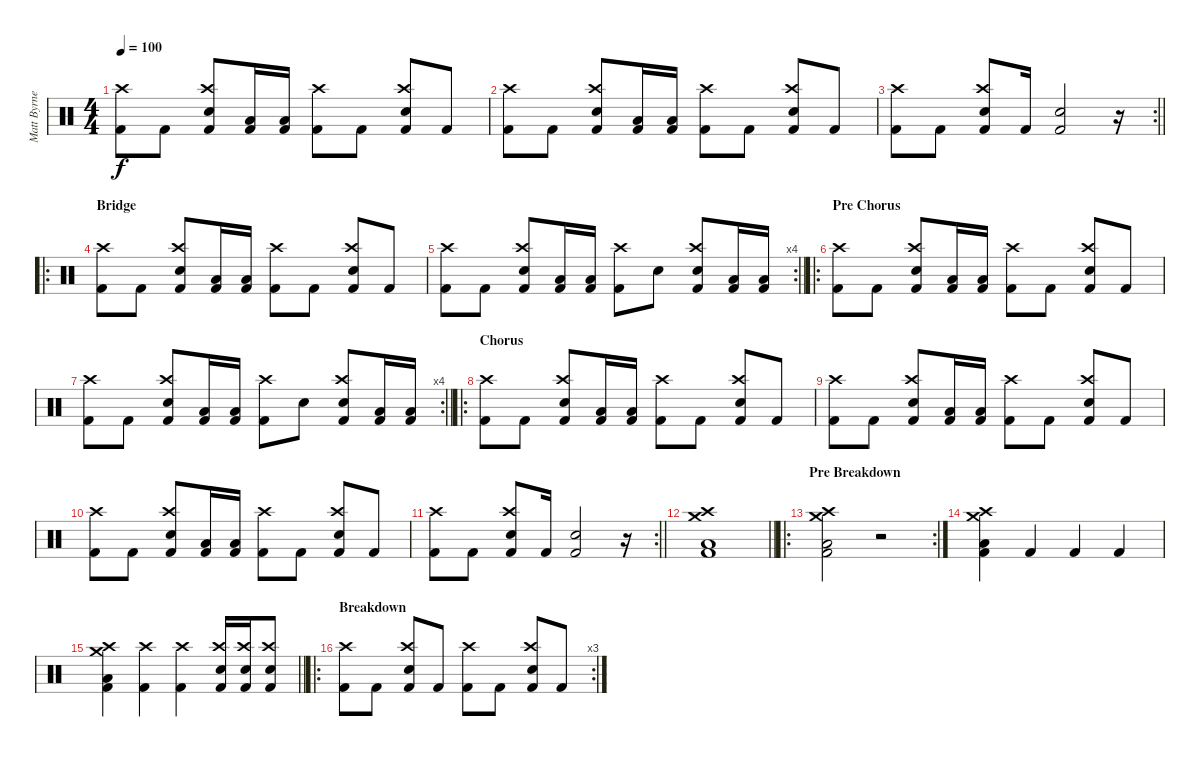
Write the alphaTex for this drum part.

\track ("Matt Byrne" "Matt Byrne") {instrument percussion}
\staff {score}
\articulation defaults
\ts (4 4)
\tempo 100
\clef neutral
\ks c
("Kick (hit) 2" "Crash high (hit)").8{dy f} "Kick (hit) 2".8 ("Crash high (hit)" "Electric Snare (hit)" "Kick (hit) 2").8 ("Low Floor Tom (hit)" "Kick (hit) 2").16 ("Low Floor Tom (hit)" "Kick (hit) 2").16 ("Kick (hit) 2" "Crash high (hit)").8 "Kick (hit) 2".8 ("Crash high (hit)" "Electric Snare (hit)" "Kick (hit) 2").8 "Kick (hit) 2".8 |
("Kick (hit) 2" "Crash high (hit)").8 "Kick (hit) 2".8 ("Crash high (hit)" "Electric Snare (hit)" "Kick (hit) 2").8 ("Low Floor Tom (hit)" "Kick (hit) 2").16 ("Low Floor Tom (hit)" "Kick (hit) 2").16 ("Kick (hit) 2" "Crash high (hit)").8 "Kick (hit) 2".8 ("Crash high (hit)" "Electric Snare (hit)" "Kick (hit) 2").8 "Kick (hit) 2".8 |
\rc 2
\barLineRight lightlight
("Kick (hit) 2" "Crash high (hit)").8 "Kick (hit) 2".8 ("Crash high (hit)" "Electric Snare (hit)" "Kick (hit) 2").8 "Kick (hit) 2".16 ("Electric Snare (hit)" "Kick (hit) 2").2 r.16 |
\ro
\section ("" "Bridge")
("Kick (hit) 2" "Crash high (hit)").8 "Kick (hit) 2".8 ("Crash high (hit)" "Electric Snare (hit)" "Kick (hit) 2").8 ("Low Floor Tom (hit)" "Kick (hit) 2").16 ("Low Floor Tom (hit)" "Kick (hit) 2").16 ("Kick (hit) 2" "Crash high (hit)").8 "Kick (hit) 2".8 ("Crash high (hit)" "Electric Snare (hit)" "Kick (hit) 2").8 "Kick (hit) 2".8 |
\rc 4
\barLineRight lightlight
("Kick (hit) 2" "Crash high (hit)").8 "Kick (hit) 2".8 ("Crash high (hit)" "Electric Snare (hit)" "Kick (hit) 2").8 ("Low Floor Tom (hit)" "Kick (hit) 2").16 ("Low Floor Tom (hit)" "Kick (hit) 2").16 ("Kick (hit) 2" "Crash high (hit)").8 "Electric Snare (hit)".8 ("Crash high (hit)" "Electric Snare (hit)" "Kick (hit) 2").8 ("Low Floor Tom (hit)" "Kick (hit) 2").16 ("Low Floor Tom (hit)" "Kick (hit) 2").16 |
\ro
\section ("" "Pre Chorus")
("Kick (hit) 2" "Crash high (hit)").8 "Kick (hit) 2".8 ("Crash high (hit)" "Electric Snare (hit)" "Kick (hit) 2").8 ("Low Floor Tom (hit)" "Kick (hit) 2").16 ("Low Floor Tom (hit)" "Kick (hit) 2").16 ("Kick (hit) 2" "Crash high (hit)").8 "Kick (hit) 2".8 ("Crash high (hit)" "Electric Snare (hit)" "Kick (hit) 2").8 "Kick (hit) 2".8 |
\rc 4
\barLineRight lightlight
("Kick (hit) 2" "Crash high (hit)").8 "Kick (hit) 2".8 ("Crash high (hit)" "Electric Snare (hit)" "Kick (hit) 2").8 ("Low Floor Tom (hit)" "Kick (hit) 2").16 ("Low Floor Tom (hit)" "Kick (hit) 2").16 ("Kick (hit) 2" "Crash high (hit)").8 "Electric Snare (hit)".8 ("Crash high (hit)" "Electric Snare (hit)" "Kick (hit) 2").8 ("Low Floor Tom (hit)" "Kick (hit) 2").16 ("Low Floor Tom (hit)" "Kick (hit) 2").16 |
\ro
\section ("" "Chorus")
("Kick (hit) 2" "Crash high (hit)").8 "Kick (hit) 2".8 ("Crash high (hit)" "Electric Snare (hit)" "Kick (hit) 2").8 ("Low Floor Tom (hit)" "Kick (hit) 2").16 ("Low Floor Tom (hit)" "Kick (hit) 2").16 ("Kick (hit) 2" "Crash high (hit)").8 "Kick (hit) 2".8 ("Crash high (hit)" "Electric Snare (hit)" "Kick (hit) 2").8 "Kick (hit) 2".8 |
("Kick (hit) 2" "Crash high (hit)").8 "Kick (hit) 2".8 ("Crash high (hit)" "Electric Snare (hit)" "Kick (hit) 2").8 ("Low Floor Tom (hit)" "Kick (hit) 2").16 ("Low Floor Tom (hit)" "Kick (hit) 2").16 ("Kick (hit) 2" "Crash high (hit)").8 "Kick (hit) 2".8 ("Crash high (hit)" "Electric Snare (hit)" "Kick (hit) 2").8 "Kick (hit) 2".8 |
("Kick (hit) 2" "Crash high (hit)").8 "Kick (hit) 2".8 ("Crash high (hit)" "Electric Snare (hit)" "Kick (hit) 2").8 ("Low Floor Tom (hit)" "Kick (hit) 2").16 ("Low Floor Tom (hit)" "Kick (hit) 2").16 ("Kick (hit) 2" "Crash high (hit)").8 "Kick (hit) 2".8 ("Crash high (hit)" "Electric Snare (hit)" "Kick (hit) 2").8 "Kick (hit) 2".8 |
\rc 2
\barLineRight lightlight
("Kick (hit) 2" "Crash high (hit)").8 "Kick (hit) 2".8 ("Crash high (hit)" "Electric Snare (hit)" "Kick (hit) 2").8 "Kick (hit) 2".16 ("Electric Snare (hit)" "Kick (hit) 2").2 r.16 |
\section ("" "")
\barLineRight lightlight
("Low Floor Tom (hit)" "Kick (hit) 2" "Crash high (hit)" "Crash medium (hit)").1 |
\ro
\rc 2
\section ("" "Pre Breakdown")
("Low Floor Tom (hit)" "Kick (hit) 2" "Crash high (hit)" "Crash medium (hit)").2 r.2 |
("Low Floor Tom (hit)" "Kick (hit) 2" "Crash high (hit)" "Crash medium (hit)").4 "Kick (hit) 2".4 "Kick (hit) 2".4 "Kick (hit) 2".4 |
\barLineRight lightlight
("Low Floor Tom (hit)" "Kick (hit) 2" "Crash high (hit)" "Crash medium (hit)").4 ("Crash high (hit)" "Kick (hit) 2").4 ("Crash high (hit)" "Kick (hit) 2").4 ("Kick (hit) 2" "Crash high (hit)" "Electric Snare (hit)").16 ("Crash high (hit)" "Kick (hit) 2" "Electric Snare (hit)").16 ("Crash high (hit)" "Kick (hit) 2" "Electric Snare (hit)").8 |
\ro
\rc 3
\section ("" "Breakdown")
("Kick (hit) 2" "Crash high (hit)").8 "Kick (hit) 2".8 ("Crash high (hit)" "Electric Snare (hit)" "Kick (hit) 2").8 "Kick (hit) 2".8 ("Kick (hit) 2" "Crash high (hit)").8 "Kick (hit) 2".8 ("Crash high (hit)" "Electric Snare (hit)" "Kick (hit) 2").8 "Kick (hit) 2".8
